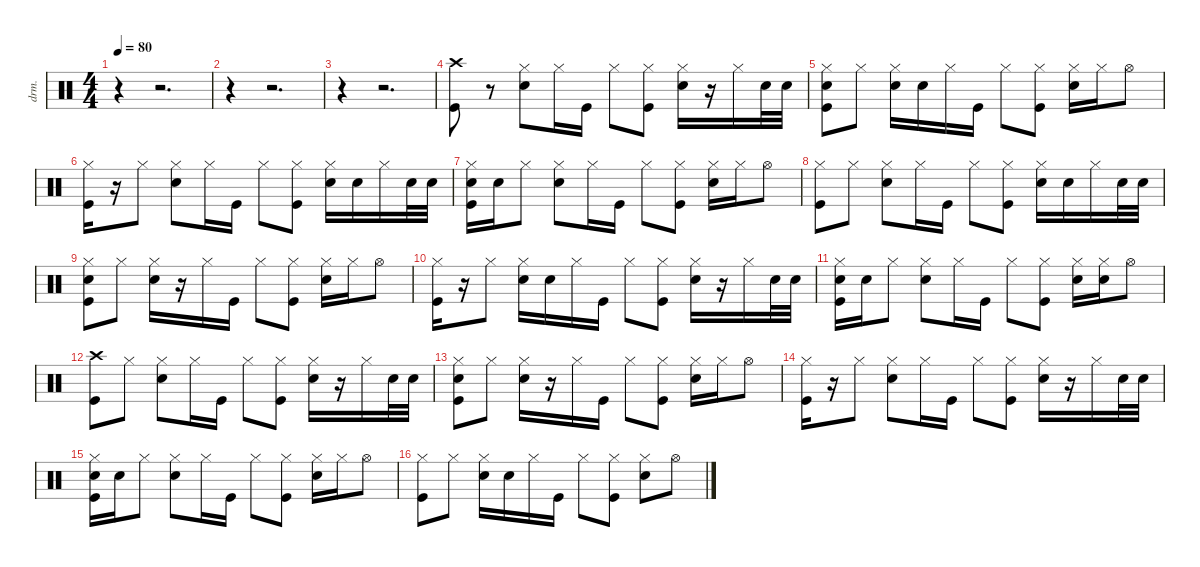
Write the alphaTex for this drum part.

\defaultSystemsLayout 4
\hideDynamics
\bracketExtendMode nobrackets
\otherSystemsTrackNameOrientation horizontal
\track ("Percussion" "drm.") {instrument percussion}
\staff {score}
\articulation defaults
\ts (4 4)
\tempo 80
\clef neutral
\ks c
r.4{dy f beam Down} r.2{d beam Down} |
r.4{beam Down} r.2{d beam Down} |
r.4{beam Down} r.2{d beam Down} |
("Crash high (hit)" "Kick (hit)").8{beam Down} r.8{beam Down} ("Hi-Hat (closed)" "Snare (hit) 2").8{beam Down} "Hi-Hat (closed)".16{beam Down} "Kick (hit)".16{beam Down} "Hi-Hat (closed)".8{beam Down} ("Hi-Hat (closed)" "Kick (hit)").8{beam Down} ("Hi-Hat (closed)" "Snare (hit) 2").16{beam Down} r.16{beam Down} "Hi-Hat (closed)".16{beam Down} "Snare (hit) 2".32{dy p beam Down} "Snare (hit) 2".32{beam Down} |
("Hi-Hat (closed)" "Snare (hit) 2" "Kick (hit)").8{dy f beam Down} "Hi-Hat (closed)".8{beam Down} ("Hi-Hat (closed)" "Snare (hit) 2").16{beam Down} "Snare (hit) 2".16{dy pp beam Down} "Hi-Hat (closed)".16{dy f beam Down} "Kick (hit)".16{beam Down} "Hi-Hat (closed)".8{beam Down} ("Hi-Hat (closed)" "Kick (hit)").8{beam Down} ("Hi-Hat (closed)" "Snare (hit) 2").16{beam Down} "Hi-Hat (closed)".16{dy mp beam Down} "Hi-Hat (open)".8{dy f beam Down} |
("Hi-Hat (closed)" "Kick (hit)").16{beam Down} r.16{beam Down} "Hi-Hat (closed)".8{beam Down} ("Hi-Hat (closed)" "Snare (hit) 2").8{beam Down} "Hi-Hat (closed)".16{beam Down} "Kick (hit)".16{beam Down} "Hi-Hat (closed)".8{beam Down} ("Hi-Hat (closed)" "Kick (hit)").8{beam Down} ("Hi-Hat (closed)" "Snare (hit) 2").16{beam Down} "Snare (hit) 2".16{dy pp beam Down} "Hi-Hat (closed)".16{dy f beam Down} "Snare (hit) 2".32{dy p beam Down} "Snare (hit) 2".32{beam Down} |
("Hi-Hat (closed)" "Snare (hit) 2" "Kick (hit)").16{dy f beam Down} "Snare (hit) 2".16{dy pp beam Down} "Hi-Hat (closed)".8{dy f beam Down} ("Hi-Hat (closed)" "Snare (hit) 2").8{beam Down} "Hi-Hat (closed)".16{beam Down} "Kick (hit)".16{beam Down} "Hi-Hat (closed)".8{beam Down} ("Hi-Hat (closed)" "Kick (hit)").8{beam Down} ("Hi-Hat (closed)" "Snare (hit) 2").16{beam Down} "Hi-Hat (closed)".16{dy mp beam Down} "Hi-Hat (open)".8{dy f beam Down} |
("Hi-Hat (closed)" "Kick (hit)").8{beam Down} "Hi-Hat (closed)".8{dy mp beam Down} ("Hi-Hat (closed)" "Snare (hit) 2").8{dy f beam Down} "Hi-Hat (closed)".16{beam Down} "Kick (hit)".16{beam Down} "Hi-Hat (closed)".8{beam Down} ("Hi-Hat (closed)" "Kick (hit)").8{beam Down} ("Hi-Hat (closed)" "Snare (hit) 2").16{beam Down} "Snare (hit) 2".16{dy p beam Down} "Hi-Hat (closed)".16{dy f beam Down} "Snare (hit) 2".32{dy p beam Down} "Snare (hit) 2".32{beam Down} |
("Hi-Hat (closed)" "Snare (hit) 2" "Kick (hit)").8{dy f beam Down} "Hi-Hat (closed)".8{beam Down} ("Hi-Hat (closed)" "Snare (hit) 2").16{beam Down} r.16{beam Down} "Hi-Hat (closed)".16{beam Down} "Kick (hit)".16{beam Down} "Hi-Hat (closed)".8{beam Down} ("Hi-Hat (closed)" "Kick (hit)").8{beam Down} ("Hi-Hat (closed)" "Snare (hit) 2").16{beam Down} "Hi-Hat (closed)".16{dy mp beam Down} "Hi-Hat (open)".8{dy f beam Down} |
("Hi-Hat (closed)" "Kick (hit)").16{beam Down} r.16{beam Down} "Hi-Hat (closed)".8{beam Down} ("Hi-Hat (closed)" "Snare (hit) 2").16{beam Down} "Snare (hit) 2".16{dy p beam Down} "Hi-Hat (closed)".16{dy f beam Down} "Kick (hit)".16{beam Down} "Hi-Hat (closed)".8{beam Down} ("Hi-Hat (closed)" "Kick (hit)").8{beam Down} ("Hi-Hat (closed)" "Snare (hit) 2").16{beam Down} r.16{beam Down} "Hi-Hat (closed)".16{beam Down} "Snare (hit) 2".32{dy p beam Down} "Snare (hit) 2".32{beam Down} |
("Hi-Hat (closed)" "Snare (hit) 2" "Kick (hit)").16{dy f beam Down} "Snare (hit) 2".16{dy pp beam Down} "Hi-Hat (closed)".8{dy f beam Down} ("Hi-Hat (closed)" "Snare (hit) 2").8{beam Down} "Hi-Hat (closed)".16{beam Down} "Kick (hit)".16{beam Down} "Hi-Hat (closed)".8{beam Down} ("Hi-Hat (closed)" "Kick (hit)").8{beam Down} ("Hi-Hat (closed)" "Snare (hit) 2").16{beam Down} ("Hi-Hat (closed)" "Snare (hit) 2").16{dy mp beam Down} "Hi-Hat (open)".8{dy f beam Down} |
("Crash high (hit)" "Kick (hit)").8{beam Down} "Hi-Hat (closed)".8{dy mp beam Down} ("Hi-Hat (closed)" "Snare (hit) 2").8{dy f beam Down} "Hi-Hat (closed)".16{beam Down} "Kick (hit)".16{beam Down} "Hi-Hat (closed)".8{beam Down} ("Hi-Hat (closed)" "Kick (hit)").8{beam Down} ("Hi-Hat (closed)" "Snare (hit) 2").16{beam Down} r.16{beam Down} "Hi-Hat (closed)".16{beam Down} "Snare (hit) 2".32{dy p beam Down} "Snare (hit) 2".32{beam Down} |
("Hi-Hat (closed)" "Snare (hit) 2" "Kick (hit)").8{dy f beam Down} "Hi-Hat (closed)".8{beam Down} ("Hi-Hat (closed)" "Snare (hit) 2").16{beam Down} r.16{beam Down} "Hi-Hat (closed)".16{beam Down} "Kick (hit)".16{beam Down} "Hi-Hat (closed)".8{beam Down} ("Hi-Hat (closed)" "Kick (hit)").8{beam Down} ("Hi-Hat (closed)" "Snare (hit) 2").16{beam Down} "Hi-Hat (closed)".16{dy mp beam Down} "Hi-Hat (open)".8{dy f beam Down} |
("Hi-Hat (closed)" "Kick (hit)").16{beam Down} r.16{beam Down} "Hi-Hat (closed)".8{beam Down} ("Hi-Hat (closed)" "Snare (hit) 2").8{beam Down} "Hi-Hat (closed)".16{beam Down} "Kick (hit)".16{beam Down} "Hi-Hat (closed)".8{beam Down} ("Hi-Hat (closed)" "Kick (hit)").8{beam Down} ("Hi-Hat (closed)" "Snare (hit) 2").16{beam Down} r.16{beam Down} "Hi-Hat (closed)".16{beam Down} "Snare (hit) 2".32{dy p beam Down} "Snare (hit) 2".32{beam Down} |
("Hi-Hat (closed)" "Snare (hit) 2" "Kick (hit)").16{dy f beam Down} "Snare (hit) 2".16{dy pp beam Down} "Hi-Hat (closed)".8{dy f beam Down} ("Hi-Hat (closed)" "Snare (hit) 2").8{beam Down} "Hi-Hat (closed)".16{beam Down} "Kick (hit)".16{beam Down} "Hi-Hat (closed)".8{beam Down} ("Hi-Hat (closed)" "Kick (hit)").8{beam Down} ("Hi-Hat (closed)" "Snare (hit) 2").16{beam Down} "Hi-Hat (closed)".16{dy mp beam Down} "Hi-Hat (open)".8{dy f beam Down} |
("Hi-Hat (closed)" "Kick (hit)").8{beam Down} "Hi-Hat (closed)".8{beam Down} ("Hi-Hat (closed)" "Snare (hit) 2").16{beam Down} "Snare (hit) 2".16{dy p beam Down} "Hi-Hat (closed)".16{dy f beam Down} "Kick (hit)".16{beam Down} "Hi-Hat (closed)".8{beam Down} ("Hi-Hat (closed)" "Kick (hit)").8{beam Down} ("Hi-Hat (closed)" "Snare (hit) 2").8{beam Down} "Hi-Hat (open)".8{beam Down}
